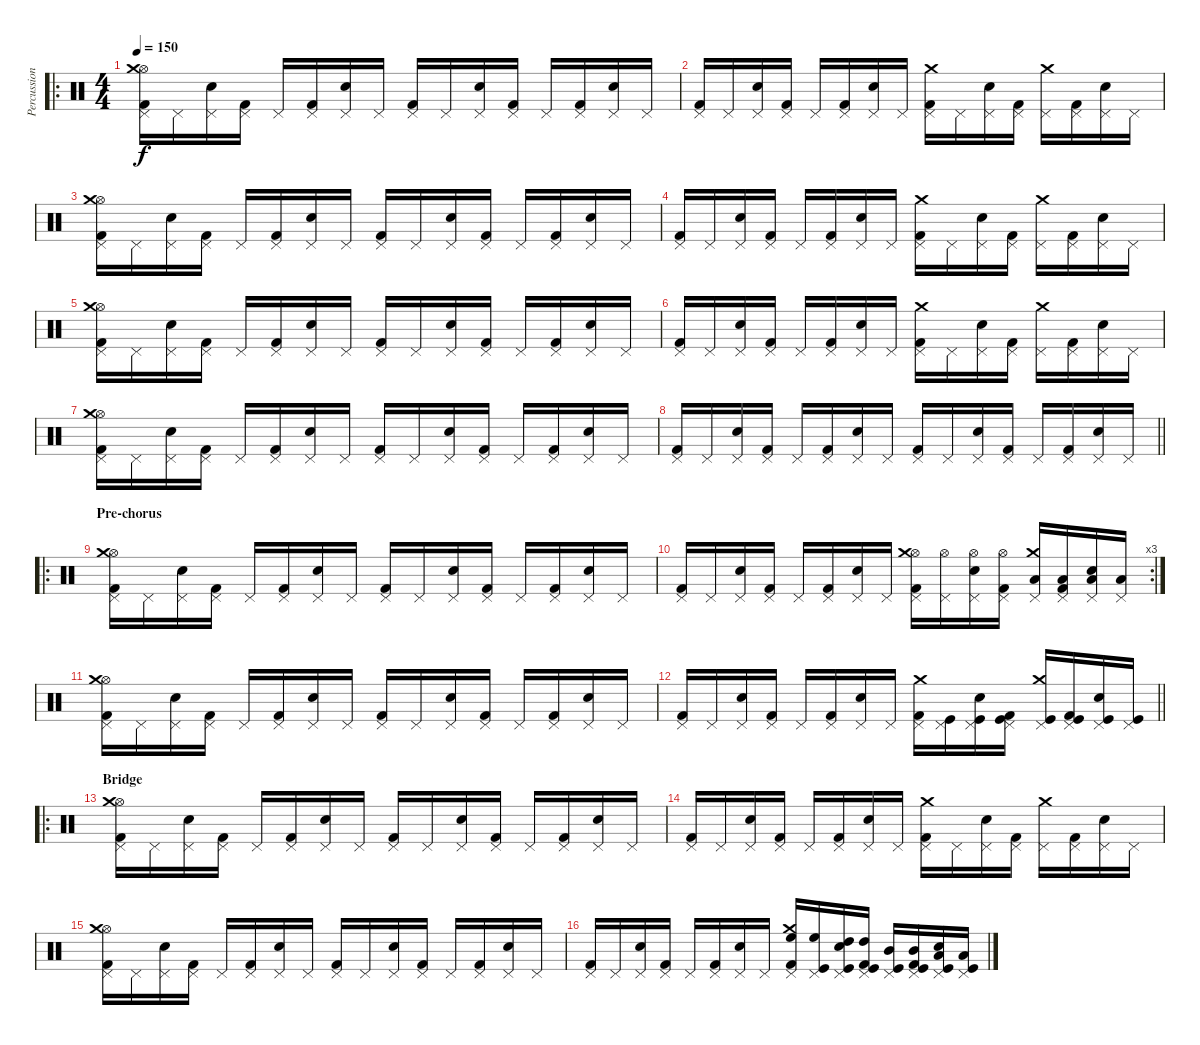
\track ("Percussion" "Percussion") {instrument percussion}
\staff {score}
\articulation defaults
\ro
\ts (4 4)
\tempo 150
\clef neutral
\ks c
("Pedal Hi-Hat (hit)" "Kick (hit) 2" "Hi-Hat (open)" "Crash medium (hit)").16{dy f} "Pedal Hi-Hat (hit)".16 ("Pedal Hi-Hat (hit)" "Snare (hit) 2").16 ("Pedal Hi-Hat (hit)" "Kick (hit) 2").16 "Pedal Hi-Hat (hit)".16 ("Pedal Hi-Hat (hit)" "Kick (hit) 2").16 ("Pedal Hi-Hat (hit)" "Snare (hit) 2").16 "Pedal Hi-Hat (hit)".16 ("Pedal Hi-Hat (hit)" "Kick (hit) 2").16 "Pedal Hi-Hat (hit)".16 ("Pedal Hi-Hat (hit)" "Snare (hit) 2").16 ("Pedal Hi-Hat (hit)" "Kick (hit) 2").16 "Pedal Hi-Hat (hit)".16 ("Pedal Hi-Hat (hit)" "Kick (hit) 2").16 ("Pedal Hi-Hat (hit)" "Snare (hit) 2").16 "Pedal Hi-Hat (hit)".16 |
("Pedal Hi-Hat (hit)" "Kick (hit) 2").16 "Pedal Hi-Hat (hit)".16 ("Pedal Hi-Hat (hit)" "Snare (hit) 2").16 ("Pedal Hi-Hat (hit)" "Kick (hit) 2").16 "Pedal Hi-Hat (hit)".16 ("Pedal Hi-Hat (hit)" "Kick (hit) 2").16 ("Pedal Hi-Hat (hit)" "Snare (hit) 2").16 "Pedal Hi-Hat (hit)".16 ("Pedal Hi-Hat (hit)" "Kick (hit) 2" "Crash medium (hit)").16 "Pedal Hi-Hat (hit)".16 ("Pedal Hi-Hat (hit)" "Snare (hit) 2").16 ("Pedal Hi-Hat (hit)" "Kick (hit) 2").16 ("Pedal Hi-Hat (hit)" "Crash medium (hit)").16 ("Pedal Hi-Hat (hit)" "Kick (hit) 2").16 ("Pedal Hi-Hat (hit)" "Snare (hit) 2").16 "Pedal Hi-Hat (hit)".16 |
("Pedal Hi-Hat (hit)" "Kick (hit) 2" "Hi-Hat (open)" "Crash medium (hit)").16 "Pedal Hi-Hat (hit)".16 ("Pedal Hi-Hat (hit)" "Snare (hit) 2").16 ("Pedal Hi-Hat (hit)" "Kick (hit) 2").16 "Pedal Hi-Hat (hit)".16 ("Pedal Hi-Hat (hit)" "Kick (hit) 2").16 ("Pedal Hi-Hat (hit)" "Snare (hit) 2").16 "Pedal Hi-Hat (hit)".16 ("Pedal Hi-Hat (hit)" "Kick (hit) 2").16 "Pedal Hi-Hat (hit)".16 ("Pedal Hi-Hat (hit)" "Snare (hit) 2").16 ("Pedal Hi-Hat (hit)" "Kick (hit) 2").16 "Pedal Hi-Hat (hit)".16 ("Pedal Hi-Hat (hit)" "Kick (hit) 2").16 ("Pedal Hi-Hat (hit)" "Snare (hit) 2").16 "Pedal Hi-Hat (hit)".16 |
("Pedal Hi-Hat (hit)" "Kick (hit) 2").16 "Pedal Hi-Hat (hit)".16 ("Pedal Hi-Hat (hit)" "Snare (hit) 2").16 ("Pedal Hi-Hat (hit)" "Kick (hit) 2").16 "Pedal Hi-Hat (hit)".16 ("Pedal Hi-Hat (hit)" "Kick (hit) 2").16 ("Pedal Hi-Hat (hit)" "Snare (hit) 2").16 "Pedal Hi-Hat (hit)".16 ("Pedal Hi-Hat (hit)" "Kick (hit) 2" "Crash medium (hit)").16 "Pedal Hi-Hat (hit)".16 ("Pedal Hi-Hat (hit)" "Snare (hit) 2").16 ("Pedal Hi-Hat (hit)" "Kick (hit) 2").16 ("Pedal Hi-Hat (hit)" "Crash medium (hit)").16 ("Pedal Hi-Hat (hit)" "Kick (hit) 2").16 ("Pedal Hi-Hat (hit)" "Snare (hit) 2").16 "Pedal Hi-Hat (hit)".16 |
("Pedal Hi-Hat (hit)" "Kick (hit) 2" "Hi-Hat (open)" "Crash medium (hit)").16 "Pedal Hi-Hat (hit)".16 ("Pedal Hi-Hat (hit)" "Snare (hit) 2").16 ("Pedal Hi-Hat (hit)" "Kick (hit) 2").16 "Pedal Hi-Hat (hit)".16 ("Pedal Hi-Hat (hit)" "Kick (hit) 2").16 ("Pedal Hi-Hat (hit)" "Snare (hit) 2").16 "Pedal Hi-Hat (hit)".16 ("Pedal Hi-Hat (hit)" "Kick (hit) 2").16 "Pedal Hi-Hat (hit)".16 ("Pedal Hi-Hat (hit)" "Snare (hit) 2").16 ("Pedal Hi-Hat (hit)" "Kick (hit) 2").16 "Pedal Hi-Hat (hit)".16 ("Pedal Hi-Hat (hit)" "Kick (hit) 2").16 ("Pedal Hi-Hat (hit)" "Snare (hit) 2").16 "Pedal Hi-Hat (hit)".16 |
("Pedal Hi-Hat (hit)" "Kick (hit) 2").16 "Pedal Hi-Hat (hit)".16 ("Pedal Hi-Hat (hit)" "Snare (hit) 2").16 ("Pedal Hi-Hat (hit)" "Kick (hit) 2").16 "Pedal Hi-Hat (hit)".16 ("Pedal Hi-Hat (hit)" "Kick (hit) 2").16 ("Pedal Hi-Hat (hit)" "Snare (hit) 2").16 "Pedal Hi-Hat (hit)".16 ("Pedal Hi-Hat (hit)" "Kick (hit) 2" "Crash medium (hit)").16 "Pedal Hi-Hat (hit)".16 ("Pedal Hi-Hat (hit)" "Snare (hit) 2").16 ("Pedal Hi-Hat (hit)" "Kick (hit) 2").16 ("Pedal Hi-Hat (hit)" "Crash medium (hit)").16 ("Pedal Hi-Hat (hit)" "Kick (hit) 2").16 ("Pedal Hi-Hat (hit)" "Snare (hit) 2").16 "Pedal Hi-Hat (hit)".16 |
("Pedal Hi-Hat (hit)" "Kick (hit) 2" "Hi-Hat (open)" "Crash medium (hit)").16 "Pedal Hi-Hat (hit)".16 ("Pedal Hi-Hat (hit)" "Snare (hit) 2").16 ("Pedal Hi-Hat (hit)" "Kick (hit) 2").16 "Pedal Hi-Hat (hit)".16 ("Pedal Hi-Hat (hit)" "Kick (hit) 2").16 ("Pedal Hi-Hat (hit)" "Snare (hit) 2").16 "Pedal Hi-Hat (hit)".16 ("Pedal Hi-Hat (hit)" "Kick (hit) 2").16 "Pedal Hi-Hat (hit)".16 ("Pedal Hi-Hat (hit)" "Snare (hit) 2").16 ("Pedal Hi-Hat (hit)" "Kick (hit) 2").16 "Pedal Hi-Hat (hit)".16 ("Pedal Hi-Hat (hit)" "Kick (hit) 2").16 ("Pedal Hi-Hat (hit)" "Snare (hit) 2").16 "Pedal Hi-Hat (hit)".16 |
\barLineRight lightlight
("Pedal Hi-Hat (hit)" "Kick (hit) 2").16 "Pedal Hi-Hat (hit)".16 ("Pedal Hi-Hat (hit)" "Snare (hit) 2").16 ("Pedal Hi-Hat (hit)" "Kick (hit) 2").16 "Pedal Hi-Hat (hit)".16 ("Pedal Hi-Hat (hit)" "Kick (hit) 2").16 ("Pedal Hi-Hat (hit)" "Snare (hit) 2").16 "Pedal Hi-Hat (hit)".16 ("Pedal Hi-Hat (hit)" "Kick (hit) 2").16 "Pedal Hi-Hat (hit)".16 ("Pedal Hi-Hat (hit)" "Snare (hit) 2").16 ("Pedal Hi-Hat (hit)" "Kick (hit) 2").16 "Pedal Hi-Hat (hit)".16 ("Pedal Hi-Hat (hit)" "Kick (hit) 2").16 ("Pedal Hi-Hat (hit)" "Snare (hit) 2").16 "Pedal Hi-Hat (hit)".16 |
\ro
\section ("" "Pre-chorus")
("Pedal Hi-Hat (hit)" "Kick (hit) 2" "Hi-Hat (open)" "Crash medium (hit)").16 "Pedal Hi-Hat (hit)".16 ("Pedal Hi-Hat (hit)" "Snare (hit) 2").16 ("Pedal Hi-Hat (hit)" "Kick (hit) 2").16 "Pedal Hi-Hat (hit)".16 ("Pedal Hi-Hat (hit)" "Kick (hit) 2").16 ("Pedal Hi-Hat (hit)" "Snare (hit) 2").16 "Pedal Hi-Hat (hit)".16 ("Pedal Hi-Hat (hit)" "Kick (hit) 2").16 "Pedal Hi-Hat (hit)".16 ("Pedal Hi-Hat (hit)" "Snare (hit) 2").16 ("Pedal Hi-Hat (hit)" "Kick (hit) 2").16 "Pedal Hi-Hat (hit)".16 ("Pedal Hi-Hat (hit)" "Kick (hit) 2").16 ("Pedal Hi-Hat (hit)" "Snare (hit) 2").16 "Pedal Hi-Hat (hit)".16 |
\rc 3
("Pedal Hi-Hat (hit)" "Kick (hit) 2").16 "Pedal Hi-Hat (hit)".16 ("Pedal Hi-Hat (hit)" "Snare (hit) 2").16 ("Pedal Hi-Hat (hit)" "Kick (hit) 2").16 "Pedal Hi-Hat (hit)".16 ("Pedal Hi-Hat (hit)" "Kick (hit) 2").16 ("Pedal Hi-Hat (hit)" "Snare (hit) 2").16 "Pedal Hi-Hat (hit)".16 ("Pedal Hi-Hat (hit)" "Kick (hit) 2" "Hi-Hat (open)" "Crash medium (hit)").16 ("Pedal Hi-Hat (hit)" "Hi-Hat (open)").16 ("Pedal Hi-Hat (hit)" "Snare (hit) 2" "Hi-Hat (open)").16 ("Pedal Hi-Hat (hit)" "Kick (hit) 2" "Hi-Hat (open)").16 ("Pedal Hi-Hat (hit)" "Low Tom (hit)" "Crash medium (hit)").16 ("Pedal Hi-Hat (hit)" "Kick (hit) 2" "Low Tom (hit)").16 ("Pedal Hi-Hat (hit)" "Snare (hit) 2" "Low Tom (hit)").16 ("Pedal Hi-Hat (hit)" "Low Tom (hit)").16 |
("Pedal Hi-Hat (hit)" "Kick (hit) 2" "Hi-Hat (open)" "Crash medium (hit)").16 "Pedal Hi-Hat (hit)".16 ("Pedal Hi-Hat (hit)" "Snare (hit) 2").16 ("Pedal Hi-Hat (hit)" "Kick (hit) 2").16 "Pedal Hi-Hat (hit)".16 ("Pedal Hi-Hat (hit)" "Kick (hit) 2").16 ("Pedal Hi-Hat (hit)" "Snare (hit) 2").16 "Pedal Hi-Hat (hit)".16 ("Pedal Hi-Hat (hit)" "Kick (hit) 2").16 "Pedal Hi-Hat (hit)".16 ("Pedal Hi-Hat (hit)" "Snare (hit) 2").16 ("Pedal Hi-Hat (hit)" "Kick (hit) 2").16 "Pedal Hi-Hat (hit)".16 ("Pedal Hi-Hat (hit)" "Kick (hit) 2").16 ("Pedal Hi-Hat (hit)" "Snare (hit) 2").16 "Pedal Hi-Hat (hit)".16 |
\barLineRight lightlight
("Pedal Hi-Hat (hit)" "Kick (hit) 2").16 "Pedal Hi-Hat (hit)".16 ("Pedal Hi-Hat (hit)" "Snare (hit) 2").16 ("Pedal Hi-Hat (hit)" "Kick (hit) 2").16 "Pedal Hi-Hat (hit)".16 ("Pedal Hi-Hat (hit)" "Kick (hit) 2").16 ("Pedal Hi-Hat (hit)" "Snare (hit) 2").16 "Pedal Hi-Hat (hit)".16 ("Pedal Hi-Hat (hit)" "Kick (hit) 2" "Crash medium (hit)").16 ("Pedal Hi-Hat (hit)" "Kick (hit)").16 ("Pedal Hi-Hat (hit)" "Snare (hit) 2" "Kick (hit)").16 ("Pedal Hi-Hat (hit)" "Kick (hit) 2" "Kick (hit)").16 ("Pedal Hi-Hat (hit)" "Kick (hit)" "Crash medium (hit)").16 ("Pedal Hi-Hat (hit)" "Kick (hit) 2" "Kick (hit)").16 ("Pedal Hi-Hat (hit)" "Snare (hit) 2" "Kick (hit)").16 ("Pedal Hi-Hat (hit)" "Kick (hit)").16 |
\ro
\section ("" "Bridge")
("Pedal Hi-Hat (hit)" "Kick (hit) 2" "Hi-Hat (open)" "Crash medium (hit)").16 "Pedal Hi-Hat (hit)".16 ("Pedal Hi-Hat (hit)" "Snare (hit) 2").16 ("Pedal Hi-Hat (hit)" "Kick (hit) 2").16 "Pedal Hi-Hat (hit)".16 ("Pedal Hi-Hat (hit)" "Kick (hit) 2").16 ("Pedal Hi-Hat (hit)" "Snare (hit) 2").16 "Pedal Hi-Hat (hit)".16 ("Pedal Hi-Hat (hit)" "Kick (hit) 2").16 "Pedal Hi-Hat (hit)".16 ("Pedal Hi-Hat (hit)" "Snare (hit) 2").16 ("Pedal Hi-Hat (hit)" "Kick (hit) 2").16 "Pedal Hi-Hat (hit)".16 ("Pedal Hi-Hat (hit)" "Kick (hit) 2").16 ("Pedal Hi-Hat (hit)" "Snare (hit) 2").16 "Pedal Hi-Hat (hit)".16 |
("Pedal Hi-Hat (hit)" "Kick (hit) 2").16 "Pedal Hi-Hat (hit)".16 ("Pedal Hi-Hat (hit)" "Snare (hit) 2").16 ("Pedal Hi-Hat (hit)" "Kick (hit) 2").16 "Pedal Hi-Hat (hit)".16 ("Pedal Hi-Hat (hit)" "Kick (hit) 2").16 ("Pedal Hi-Hat (hit)" "Snare (hit) 2").16 "Pedal Hi-Hat (hit)".16 ("Pedal Hi-Hat (hit)" "Kick (hit) 2" "Crash medium (hit)").16 "Pedal Hi-Hat (hit)".16 ("Pedal Hi-Hat (hit)" "Snare (hit) 2").16 ("Pedal Hi-Hat (hit)" "Kick (hit) 2").16 ("Pedal Hi-Hat (hit)" "Crash medium (hit)").16 ("Pedal Hi-Hat (hit)" "Kick (hit) 2").16 ("Pedal Hi-Hat (hit)" "Snare (hit) 2").16 "Pedal Hi-Hat (hit)".16 |
("Pedal Hi-Hat (hit)" "Kick (hit) 2" "Hi-Hat (open)" "Crash medium (hit)").16 "Pedal Hi-Hat (hit)".16 ("Pedal Hi-Hat (hit)" "Snare (hit) 2").16 ("Pedal Hi-Hat (hit)" "Kick (hit) 2").16 "Pedal Hi-Hat (hit)".16 ("Pedal Hi-Hat (hit)" "Kick (hit) 2").16 ("Pedal Hi-Hat (hit)" "Snare (hit) 2").16 "Pedal Hi-Hat (hit)".16 ("Pedal Hi-Hat (hit)" "Kick (hit) 2").16 "Pedal Hi-Hat (hit)".16 ("Pedal Hi-Hat (hit)" "Snare (hit) 2").16 ("Pedal Hi-Hat (hit)" "Kick (hit) 2").16 "Pedal Hi-Hat (hit)".16 ("Pedal Hi-Hat (hit)" "Kick (hit) 2").16 ("Pedal Hi-Hat (hit)" "Snare (hit) 2").16 "Pedal Hi-Hat (hit)".16 |
("Pedal Hi-Hat (hit)" "Kick (hit) 2").16 "Pedal Hi-Hat (hit)".16 ("Pedal Hi-Hat (hit)" "Snare (hit) 2").16 ("Pedal Hi-Hat (hit)" "Kick (hit) 2").16 "Pedal Hi-Hat (hit)".16 ("Pedal Hi-Hat (hit)" "Kick (hit) 2").16 ("Pedal Hi-Hat (hit)" "Snare (hit) 2").16 "Pedal Hi-Hat (hit)".16 ("Pedal Hi-Hat (hit)" "Kick (hit) 2" "High Floor Tom (hit)" "Crash medium (hit)").16 ("Pedal Hi-Hat (hit)" "Kick (hit)" "High Floor Tom (hit)").16 ("Pedal Hi-Hat (hit)" "Snare (hit) 2" "Kick (hit)" "High Tom (hit)").16 ("Pedal Hi-Hat (hit)" "Kick (hit) 2" "Kick (hit)" "High Tom (hit)").16 ("Pedal Hi-Hat (hit)" "Kick (hit)" "Mid Tom (hit)").16 ("Pedal Hi-Hat (hit)" "Kick (hit) 2" "Kick (hit)" "Mid Tom (hit)").16 ("Pedal Hi-Hat (hit)" "Snare (hit) 2" "Kick (hit)" "Low Tom (hit)").16 ("Pedal Hi-Hat (hit)" "Kick (hit)" "Low Tom (hit)").16
